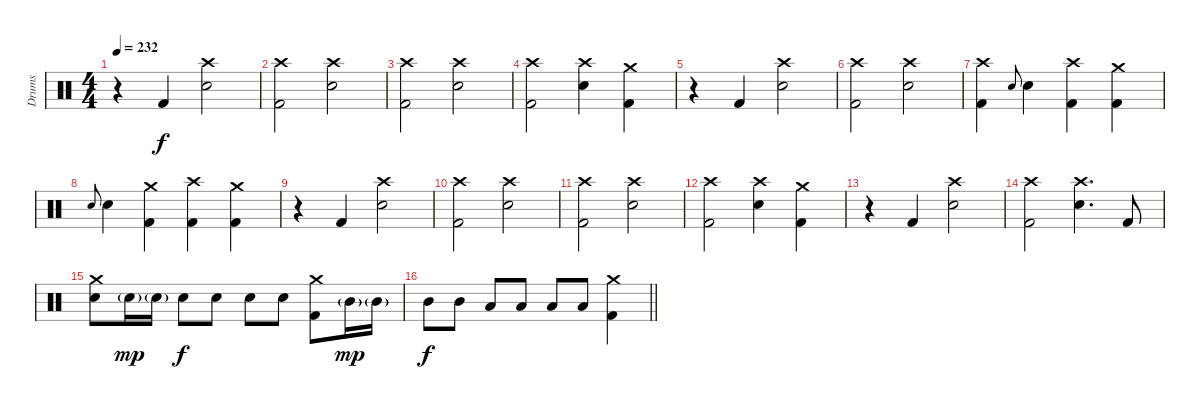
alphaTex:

\track ("Drums" "Drums") {instrument percussion}
\staff {score}
\articulation defaults
\ts (4 4)
\tempo 232
\clef neutral
\ks c
r.4{dy f} "Kick (hit) 2".4 ("Electric Snare (hit)" "Crash high (hit)").2 |
("Crash high (hit)" "Kick (hit) 2").2 ("Crash high (hit)" "Electric Snare (hit)").2 |
("Crash high (hit)" "Kick (hit) 2").2 ("Crash high (hit)" "Electric Snare (hit)").2 |
("Crash high (hit)" "Kick (hit) 2").2 ("Crash high (hit)" "Electric Snare (hit)").4 ("Crash medium (hit)" "Kick (hit) 2").4 |
r.4 "Kick (hit) 2".4 ("Crash high (hit)" "Electric Snare (hit)").2 |
("Crash high (hit)" "Kick (hit) 2").2 ("Crash high (hit)" "Electric Snare (hit)").2 |
("Crash high (hit)" "Kick (hit) 2").4 "Electric Snare (hit)".8{gr onbeat} "Electric Snare (hit)".4 ("Crash high (hit)" "Kick (hit) 2").4 ("Crash medium (hit)" "Kick (hit) 2").4 |
"Electric Snare (hit)".8{gr onbeat} "Electric Snare (hit)".4 ("Crash medium (hit)" "Kick (hit) 2").4 ("Crash high (hit)" "Kick (hit) 2").4 ("Crash medium (hit)" "Kick (hit) 2").4 |
r.4 "Kick (hit) 2".4 ("Crash high (hit)" "Electric Snare (hit)").2 |
("Crash high (hit)" "Kick (hit) 2").2 ("Crash high (hit)" "Electric Snare (hit)").2 |
("Crash high (hit)" "Kick (hit) 2").2 ("Crash high (hit)" "Electric Snare (hit)").2 |
("Crash high (hit)" "Kick (hit) 2").2 ("Crash high (hit)" "Electric Snare (hit)").4 ("Crash medium (hit)" "Kick (hit) 2").4 |
r.4 "Kick (hit) 2".4 ("Crash high (hit)" "Electric Snare (hit)").2 |
("Crash high (hit)" "Kick (hit) 2").2 ("Crash high (hit)" "Electric Snare (hit)").4{d} "Kick (hit) 2".8 |
("Electric Snare (hit)" "Crash medium (hit)").8 "Electric Snare (hit)"{g}.16{dy mp} "Electric Snare (hit)"{g}.16 "Electric Snare (hit)".8{dy f} "Electric Snare (hit)".8 "Electric Snare (hit)".8 "Electric Snare (hit)".8 ("Kick (hit) 2" "Crash medium (hit)").8 "Mid Tom (hit)"{g}.16{dy mp} "Mid Tom (hit)"{g}.16 |
\barLineRight lightlight "Mid Tom (hit)".8{dy f} "Mid Tom (hit)".8 "Low Tom (hit)".8 "Low Tom (hit)".8 "Low Floor Tom (hit)".8 "Low Floor Tom (hit)".8
("Crash medium (hit)" "Kick (hit) 2").4
